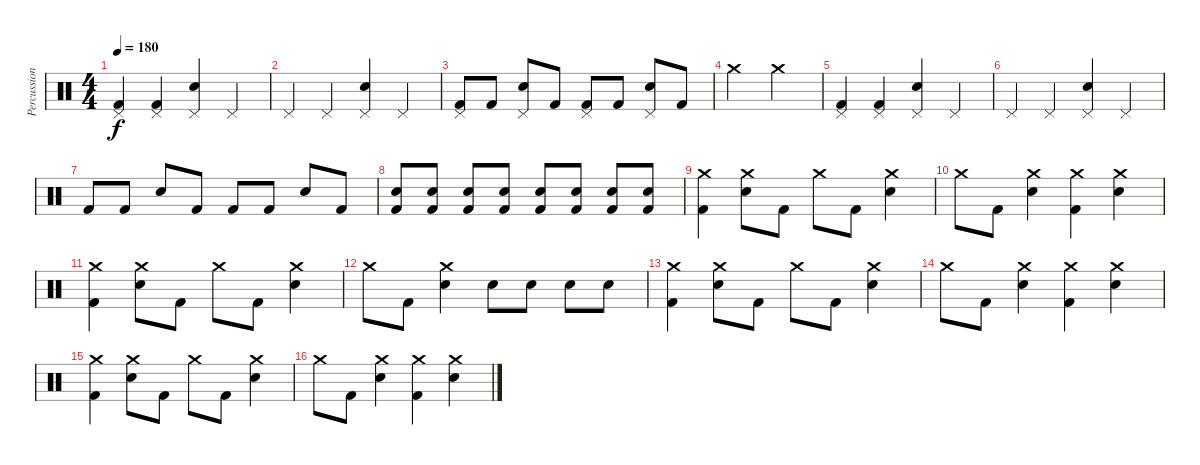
\track ("Percussion" "Percussion") {instrument percussion}
\staff {score}
\articulation defaults
\ts (4 4)
\tempo 180
\clef neutral
\ks c
("Kick (hit) 2" "Pedal Hi-Hat (hit)").4{dy f} ("Kick (hit) 2" "Pedal Hi-Hat (hit)").4 ("Electric Snare (hit)" "Pedal Hi-Hat (hit)").4 "Pedal Hi-Hat (hit)".4 |
"Pedal Hi-Hat (hit)".4 "Pedal Hi-Hat (hit)".4 ("Electric Snare (hit)" "Pedal Hi-Hat (hit)").4 "Pedal Hi-Hat (hit)".4 |
("Kick (hit) 2" "Pedal Hi-Hat (hit)").8 "Kick (hit) 2".8 ("Electric Snare (hit)" "Pedal Hi-Hat (hit)").8 "Kick (hit) 2".8 ("Kick (hit) 2" "Pedal Hi-Hat (hit)").8 "Kick (hit) 2".8 ("Electric Snare (hit)" "Pedal Hi-Hat (hit)").8 "Kick (hit) 2".8 |
"Crash medium (hit)".2 "Crash medium (hit)".2 |
("Kick (hit) 2" "Pedal Hi-Hat (hit)").4 ("Kick (hit) 2" "Pedal Hi-Hat (hit)").4 ("Electric Snare (hit)" "Pedal Hi-Hat (hit)").4 "Pedal Hi-Hat (hit)".4 |
"Pedal Hi-Hat (hit)".4 "Pedal Hi-Hat (hit)".4 ("Electric Snare (hit)" "Pedal Hi-Hat (hit)").4 "Pedal Hi-Hat (hit)".4 |
"Kick (hit) 2".8 "Kick (hit) 2".8 "Electric Snare (hit)".8 "Kick (hit) 2".8 "Kick (hit) 2".8 "Kick (hit) 2".8 "Electric Snare (hit)".8 "Kick (hit) 2".8 |
("Kick (hit) 2" "Electric Snare (hit)").8 ("Kick (hit) 2" "Electric Snare (hit)").8 ("Kick (hit) 2" "Electric Snare (hit)").8 ("Kick (hit) 2" "Electric Snare (hit)").8 ("Kick (hit) 2" "Electric Snare (hit)").8 ("Kick (hit) 2" "Electric Snare (hit)").8 ("Kick (hit) 2" "Electric Snare (hit)").8 ("Kick (hit) 2" "Electric Snare (hit)").8 |
("Kick (hit) 2" "Crash medium (hit)").4 ("Electric Snare (hit)" "Crash medium (hit)").8 "Kick (hit) 2".8 "Crash medium (hit)".8 "Kick (hit) 2".8 ("Electric Snare (hit)" "Crash medium (hit)").4 |
"Crash medium (hit)".8 "Kick (hit) 2".8 ("Electric Snare (hit)" "Crash medium (hit)").4 ("Kick (hit) 2" "Crash medium (hit)").4 ("Electric Snare (hit)" "Crash medium (hit)").4 |
("Kick (hit) 2" "Crash medium (hit)").4 ("Electric Snare (hit)" "Crash medium (hit)").8 "Kick (hit) 2".8 "Crash medium (hit)".8 "Kick (hit) 2".8 ("Electric Snare (hit)" "Crash medium (hit)").4 |
"Crash medium (hit)".8 "Kick (hit) 2".8 ("Electric Snare (hit)" "Crash medium (hit)").4 "Electric Snare (hit)".8 "Electric Snare (hit)".8 "Electric Snare (hit)".8 "Electric Snare (hit)".8 |
("Kick (hit) 2" "Crash medium (hit)").4 ("Electric Snare (hit)" "Crash medium (hit)").8 "Kick (hit) 2".8 "Crash medium (hit)".8 "Kick (hit) 2".8 ("Electric Snare (hit)" "Crash medium (hit)").4 |
"Crash medium (hit)".8 "Kick (hit) 2".8 ("Electric Snare (hit)" "Crash medium (hit)").4 ("Kick (hit) 2" "Crash medium (hit)").4 ("Electric Snare (hit)" "Crash medium (hit)").4 |
("Kick (hit) 2" "Crash medium (hit)").4 ("Electric Snare (hit)" "Crash medium (hit)").8 "Kick (hit) 2".8 "Crash medium (hit)".8 "Kick (hit) 2".8 ("Electric Snare (hit)" "Crash medium (hit)").4 |
"Crash medium (hit)".8 "Kick (hit) 2".8 ("Electric Snare (hit)" "Crash medium (hit)").4 ("Kick (hit) 2" "Crash medium (hit)").4 ("Electric Snare (hit)" "Crash medium (hit)").4
